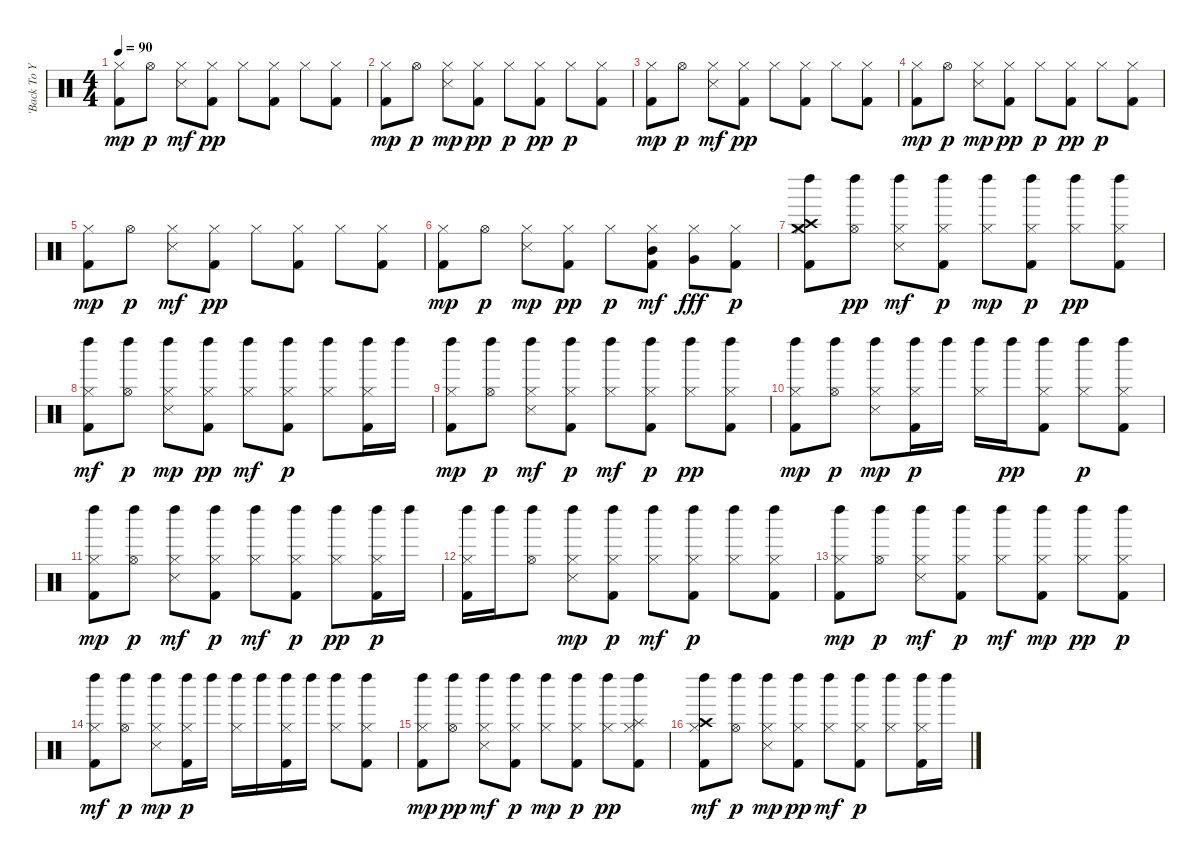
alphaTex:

\track ("'Back To Your Heart'" "'Back To Y") {instrument percussion}
\staff {score}
\articulation defaults
\ts (4 4)
\tempo 90
\clef neutral
\ks c
("Kick (hit) 2" "Hi-Hat (closed)").8{dy mp} "Hi-Hat (open)".8{dy p} ("Snare (side stick) 3" "Hi-Hat (closed)").8{dy mf} ("Kick (hit) 2" "Hi-Hat (closed)").8{dy pp} "Hi-Hat (closed)".8 ("Kick (hit) 2" "Hi-Hat (closed)").8 "Hi-Hat (closed)".8 ("Kick (hit) 2" "Hi-Hat (closed)").8 |
("Kick (hit) 2" "Hi-Hat (closed)").8{dy mp} "Hi-Hat (open)".8{dy p} ("Snare (side stick) 3" "Hi-Hat (closed)").8{dy mp} ("Kick (hit) 2" "Hi-Hat (closed)").8{dy pp} "Hi-Hat (closed)".8{dy p} ("Kick (hit) 2" "Hi-Hat (closed)").8{dy pp} "Hi-Hat (closed)".8{dy p} ("Kick (hit) 2" "Hi-Hat (closed)").8 |
("Kick (hit) 2" "Hi-Hat (closed)").8{dy mp} "Hi-Hat (open)".8{dy p} ("Snare (side stick) 3" "Hi-Hat (closed)").8{dy mf} ("Kick (hit) 2" "Hi-Hat (closed)").8{dy pp} "Hi-Hat (closed)".8 ("Kick (hit) 2" "Hi-Hat (closed)").8 "Hi-Hat (closed)".8 ("Kick (hit) 2" "Hi-Hat (closed)").8 |
("Kick (hit) 2" "Hi-Hat (closed)").8{dy mp} "Hi-Hat (open)".8{dy p} ("Snare (side stick) 3" "Hi-Hat (closed)").8{dy mp} ("Kick (hit) 2" "Hi-Hat (closed)").8{dy pp} "Hi-Hat (closed)".8{dy p} ("Kick (hit) 2" "Hi-Hat (closed)").8{dy pp} "Hi-Hat (closed)".8{dy p} ("Kick (hit) 2" "Hi-Hat (closed)").8 |
("Kick (hit) 2" "Hi-Hat (closed)").8{dy mp} "Hi-Hat (open)".8{dy p} ("Snare (side stick) 3" "Hi-Hat (closed)").8{dy mf} ("Kick (hit) 2" "Hi-Hat (closed)").8{dy pp} "Hi-Hat (closed)".8 ("Kick (hit) 2" "Hi-Hat (closed)").8 "Hi-Hat (closed)".8 ("Kick (hit) 2" "Hi-Hat (closed)").8 |
("Kick (hit) 2" "Hi-Hat (closed)").8{dy mp} "Hi-Hat (open)".8{dy p} ("Snare (side stick) 3" "Hi-Hat (closed)").8{dy mp} ("Kick (hit) 2" "Hi-Hat (closed)").8{dy pp} "Hi-Hat (closed)".8{dy p} ("Kick (hit) 2" "Hi-Hat (closed)" "Mid Tom (hit)").8{dy mf} ("Hi-Hat (closed)" "Very Low Tom (hit)").8{dy fff} ("Kick (hit) 2" "Hi-Hat (closed)").8{dy p} |
("Kick (hit) 2" "Hi-Hat (closed)" "Crash high (hit)" "Crash medium (hit)" "Left Maraca (hit)").8 ("Hi-Hat (open)" "Left Maraca (hit)").8{dy pp} ("Snare (side stick) 3" "Hi-Hat (closed)" "Left Maraca (hit)").8{dy mf} ("Kick (hit) 2" "Hi-Hat (closed)" "Left Maraca (hit)").8{dy p} ("Hi-Hat (closed)" "Left Maraca (hit)").8{dy mp} ("Kick (hit) 2" "Hi-Hat (closed)" "Left Maraca (hit)").8{dy p} ("Hi-Hat (closed)" "Left Maraca (hit)").8{dy pp} ("Kick (hit) 2" "Hi-Hat (closed)" "Left Maraca (hit)").8 |
("Kick (hit) 2" "Hi-Hat (closed)" "Left Maraca (hit)").8{dy mf} ("Hi-Hat (open)" "Left Maraca (hit)").8{dy p} ("Snare (side stick) 3" "Hi-Hat (closed)" "Left Maraca (hit)").8{dy mp} ("Kick (hit) 2" "Hi-Hat (closed)" "Left Maraca (hit)").8{dy pp} ("Hi-Hat (closed)" "Left Maraca (hit)").8{dy mf} ("Kick (hit) 2" "Hi-Hat (closed)" "Left Maraca (hit)").8{dy p} ("Hi-Hat (closed)" "Left Maraca (hit)").8 ("Kick (hit) 2" "Hi-Hat (closed)" "Left Maraca (hit)").16 "Left Maraca (hit)".16 |
("Kick (hit) 2" "Hi-Hat (closed)" "Left Maraca (hit)").8{dy mp} ("Hi-Hat (open)" "Left Maraca (hit)").8{dy p} ("Snare (side stick) 3" "Hi-Hat (closed)" "Left Maraca (hit)").8{dy mf} ("Kick (hit) 2" "Hi-Hat (closed)" "Left Maraca (hit)").8{dy p} ("Hi-Hat (closed)" "Left Maraca (hit)").8{dy mf} ("Kick (hit) 2" "Hi-Hat (closed)" "Left Maraca (hit)").8{dy p} ("Hi-Hat (closed)" "Left Maraca (hit)").8{dy pp} ("Kick (hit) 2" "Hi-Hat (closed)" "Left Maraca (hit)").8 |
("Kick (hit) 2" "Hi-Hat (closed)" "Left Maraca (hit)").8{dy mp} ("Hi-Hat (open)" "Left Maraca (hit)").8{dy p} ("Snare (side stick) 3" "Hi-Hat (closed)" "Left Maraca (hit)").8{dy mp} ("Kick (hit) 2" "Hi-Hat (closed)" "Left Maraca (hit)").16{dy p} "Left Maraca (hit)".16 ("Hi-Hat (closed)" "Left Maraca (hit)").16 "Left Maraca (hit)".16{dy pp} ("Kick (hit) 2" "Hi-Hat (closed)" "Left Maraca (hit)").8 ("Hi-Hat (closed)" "Left Maraca (hit)").8{dy p} ("Kick (hit) 2" "Hi-Hat (closed)" "Left Maraca (hit)").8 |
("Kick (hit) 2" "Hi-Hat (closed)" "Left Maraca (hit)").8{dy mp} ("Hi-Hat (open)" "Left Maraca (hit)").8{dy p} ("Snare (side stick) 3" "Hi-Hat (closed)" "Left Maraca (hit)").8{dy mf} ("Kick (hit) 2" "Hi-Hat (closed)" "Left Maraca (hit)").8{dy p} ("Hi-Hat (closed)" "Left Maraca (hit)").8{dy mf} ("Kick (hit) 2" "Hi-Hat (closed)" "Left Maraca (hit)").8{dy p} ("Hi-Hat (closed)" "Left Maraca (hit)").8{dy pp} ("Kick (hit) 2" "Hi-Hat (closed)" "Left Maraca (hit)").16{dy p} "Left Maraca (hit)".16 |
("Kick (hit) 2" "Hi-Hat (closed)" "Left Maraca (hit)").16 "Left Maraca (hit)".16 ("Hi-Hat (open)" "Left Maraca (hit)").8 ("Snare (side stick) 3" "Hi-Hat (closed)" "Left Maraca (hit)").8{dy mp} ("Kick (hit) 2" "Hi-Hat (closed)" "Left Maraca (hit)").8{dy p} ("Hi-Hat (closed)" "Left Maraca (hit)").8{dy mf} ("Kick (hit) 2" "Hi-Hat (closed)" "Left Maraca (hit)").8{dy p} ("Hi-Hat (closed)" "Left Maraca (hit)").8 ("Kick (hit) 2" "Hi-Hat (closed)" "Left Maraca (hit)").8 |
("Kick (hit) 2" "Hi-Hat (closed)" "Left Maraca (hit)").8{dy mp} ("Hi-Hat (open)" "Left Maraca (hit)").8{dy p} ("Snare (side stick) 3" "Hi-Hat (closed)" "Left Maraca (hit)").8{dy mf} ("Kick (hit) 2" "Hi-Hat (closed)" "Left Maraca (hit)").8{dy p} ("Hi-Hat (closed)" "Left Maraca (hit)").8{dy mf} ("Kick (hit) 2" "Hi-Hat (closed)" "Left Maraca (hit)").8{dy mp} ("Hi-Hat (closed)" "Left Maraca (hit)").8{dy pp} ("Kick (hit) 2" "Hi-Hat (closed)" "Left Maraca (hit)").8{dy p} |
("Kick (hit) 2" "Hi-Hat (closed)" "Left Maraca (hit)").8{dy mf} ("Hi-Hat (open)" "Left Maraca (hit)").8{dy p} ("Snare (side stick) 3" "Hi-Hat (closed)" "Left Maraca (hit)").8{dy mp} ("Kick (hit) 2" "Hi-Hat (closed)" "Left Maraca (hit)").16{dy p} "Left Maraca (hit)".16 ("Hi-Hat (closed)" "Left Maraca (hit)").16 "Left Maraca (hit)".16 ("Kick (hit) 2" "Hi-Hat (closed)" "Left Maraca (hit)").16 "Left Maraca (hit)".16 ("Hi-Hat (closed)" "Left Maraca (hit)").8 ("Kick (hit) 2" "Hi-Hat (closed)" "Left Maraca (hit)").8 |
("Kick (hit) 2" "Hi-Hat (closed)" "Left Maraca (hit)").8{dy mp} ("Hi-Hat (open)" "Left Maraca (hit)").8{dy pp} ("Snare (side stick) 3" "Hi-Hat (closed)" "Left Maraca (hit)").8{dy mf} ("Kick (hit) 2" "Hi-Hat (closed)" "Left Maraca (hit)").8{dy p} ("Hi-Hat (closed)" "Left Maraca (hit)").8{dy mp} ("Kick (hit) 2" "Hi-Hat (closed)" "Left Maraca (hit)").8{dy p} ("Hi-Hat (closed)" "Left Maraca (hit)").8{dy pp} ("Splash (hit)" "Kick (hit) 2" "Hi-Hat (closed)" "Left Maraca (hit)").8 |
("Crash high (hit)" "Kick (hit) 2" "Hi-Hat (closed)" "Left Maraca (hit)").8{dy mf} ("Hi-Hat (open)" "Left Maraca (hit)").8{dy p} ("Snare (side stick) 3" "Hi-Hat (closed)" "Left Maraca (hit)").8{dy mp} ("Kick (hit) 2" "Hi-Hat (closed)" "Left Maraca (hit)").8{dy pp} ("Hi-Hat (closed)" "Left Maraca (hit)").8{dy mf} ("Kick (hit) 2" "Hi-Hat (closed)" "Left Maraca (hit)").8{dy p} ("Hi-Hat (closed)" "Left Maraca (hit)").8 ("Kick (hit) 2" "Hi-Hat (closed)" "Left Maraca (hit)").16 "Left Maraca (hit)".16
